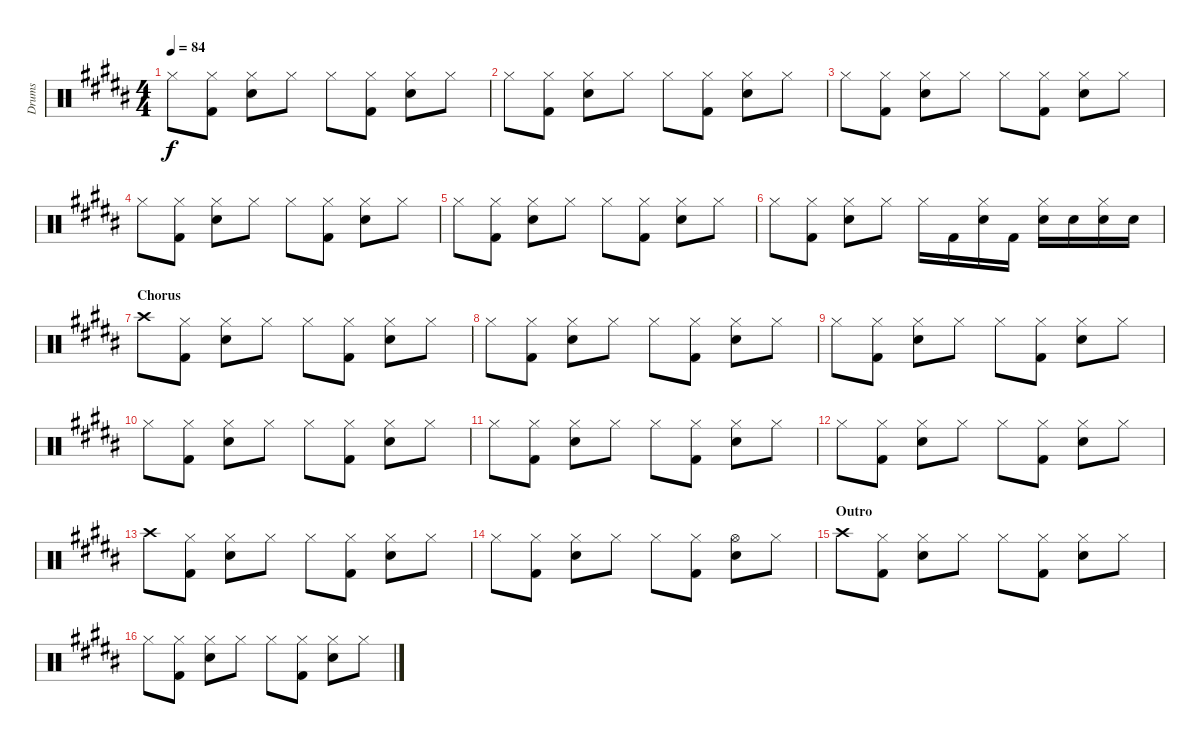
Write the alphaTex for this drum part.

\track ("Drums" "Drums") {instrument percussion}
\staff {score}
\articulation defaults
\ts (4 4)
\tempo 84
\clef neutral
\ks b "Hi-Hat (closed)".8{dy f}
("Hi-Hat (closed)" "Kick (hit) 2").8 ("Hi-Hat (closed)" "Snare (hit) 2").8 "Hi-Hat (closed)".8 "Hi-Hat (closed)".8 ("Hi-Hat (closed)" "Kick (hit) 2").8 ("Hi-Hat (closed)" "Snare (hit) 2").8 "Hi-Hat (closed)".8 |
"Hi-Hat (closed)".8 ("Hi-Hat (closed)" "Kick (hit) 2").8 ("Hi-Hat (closed)" "Snare (hit) 2").8 "Hi-Hat (closed)".8 "Hi-Hat (closed)".8 ("Hi-Hat (closed)" "Kick (hit) 2").8 ("Hi-Hat (closed)" "Snare (hit) 2").8 "Hi-Hat (closed)".8 |
"Hi-Hat (closed)".8 ("Hi-Hat (closed)" "Kick (hit) 2").8 ("Hi-Hat (closed)" "Snare (hit) 2").8 "Hi-Hat (closed)".8 "Hi-Hat (closed)".8 ("Hi-Hat (closed)" "Kick (hit) 2").8 ("Hi-Hat (closed)" "Snare (hit) 2").8 "Hi-Hat (closed)".8 |
"Hi-Hat (closed)".8 ("Hi-Hat (closed)" "Kick (hit) 2").8 ("Hi-Hat (closed)" "Snare (hit) 2").8 "Hi-Hat (closed)".8 "Hi-Hat (closed)".8 ("Hi-Hat (closed)" "Kick (hit) 2").8 ("Hi-Hat (closed)" "Snare (hit) 2").8 "Hi-Hat (closed)".8 |
"Hi-Hat (closed)".8 ("Hi-Hat (closed)" "Kick (hit) 2").8 ("Hi-Hat (closed)" "Snare (hit) 2").8 "Hi-Hat (closed)".8 "Hi-Hat (closed)".8 ("Hi-Hat (closed)" "Kick (hit) 2").8 ("Hi-Hat (closed)" "Snare (hit) 2").8 "Hi-Hat (closed)".8 |
"Hi-Hat (closed)".8 ("Hi-Hat (closed)" "Kick (hit) 2").8 ("Hi-Hat (closed)" "Snare (hit) 2").8 "Hi-Hat (closed)".8 "Hi-Hat (closed)".16 "Kick (hit) 2".16 ("Hi-Hat (closed)" "Snare (hit) 2").16 "Kick (hit) 2".16 ("Snare (hit) 2" "Hi-Hat (closed)").16 "Snare (hit) 2".16 ("Snare (hit) 2" "Hi-Hat (closed)").16 "Snare (hit) 2".16 |
\section ("" "Chorus")
"Crash high (hit)".8 ("Hi-Hat (closed)" "Kick (hit) 2").8 ("Hi-Hat (closed)" "Snare (hit) 2").8 "Hi-Hat (closed)".8 "Hi-Hat (closed)".8 ("Hi-Hat (closed)" "Kick (hit) 2").8 ("Hi-Hat (closed)" "Snare (hit) 2").8 "Hi-Hat (closed)".8 |
"Hi-Hat (closed)".8 ("Hi-Hat (closed)" "Kick (hit) 2").8 ("Hi-Hat (closed)" "Snare (hit) 2").8 "Hi-Hat (closed)".8 "Hi-Hat (closed)".8 ("Hi-Hat (closed)" "Kick (hit) 2").8 ("Hi-Hat (closed)" "Snare (hit) 2").8 "Hi-Hat (closed)".8 |
"Hi-Hat (closed)".8 ("Hi-Hat (closed)" "Kick (hit) 2").8 ("Hi-Hat (closed)" "Snare (hit) 2").8 "Hi-Hat (closed)".8 "Hi-Hat (closed)".8 ("Hi-Hat (closed)" "Kick (hit) 2").8 ("Hi-Hat (closed)" "Snare (hit) 2").8 "Hi-Hat (closed)".8 |
"Hi-Hat (closed)".8 ("Hi-Hat (closed)" "Kick (hit) 2").8 ("Hi-Hat (closed)" "Snare (hit) 2").8 "Hi-Hat (closed)".8 "Hi-Hat (closed)".8 ("Hi-Hat (closed)" "Kick (hit) 2").8 ("Hi-Hat (closed)" "Snare (hit) 2").8 "Hi-Hat (closed)".8 |
"Hi-Hat (closed)".8 ("Hi-Hat (closed)" "Kick (hit) 2").8 ("Hi-Hat (closed)" "Snare (hit) 2").8 "Hi-Hat (closed)".8 "Hi-Hat (closed)".8 ("Hi-Hat (closed)" "Kick (hit) 2").8 ("Hi-Hat (closed)" "Snare (hit) 2").8 "Hi-Hat (closed)".8 |
"Hi-Hat (closed)".8 ("Hi-Hat (closed)" "Kick (hit) 2").8 ("Hi-Hat (closed)" "Snare (hit) 2").8 "Hi-Hat (closed)".8 "Hi-Hat (closed)".8 ("Hi-Hat (closed)" "Kick (hit) 2").8 ("Hi-Hat (closed)" "Snare (hit) 2").8 "Hi-Hat (closed)".8 |
"Crash high (hit)".8 ("Hi-Hat (closed)" "Kick (hit) 2").8 ("Hi-Hat (closed)" "Snare (hit) 2").8 "Hi-Hat (closed)".8 "Hi-Hat (closed)".8 ("Hi-Hat (closed)" "Kick (hit) 2").8 ("Hi-Hat (closed)" "Snare (hit) 2").8 "Hi-Hat (closed)".8 |
"Hi-Hat (closed)".8 ("Hi-Hat (closed)" "Kick (hit) 2").8 ("Hi-Hat (closed)" "Snare (hit) 2").8 "Hi-Hat (closed)".8 "Hi-Hat (closed)".8 ("Hi-Hat (closed)" "Kick (hit) 2").8 ("Hi-Hat (open)" "Snare (hit) 2").8 "Hi-Hat (closed)".8 |
\section ("" "Outro")
"Crash high (hit)".8 ("Hi-Hat (closed)" "Kick (hit) 2").8 ("Hi-Hat (closed)" "Snare (hit) 2").8 "Hi-Hat (closed)".8 "Hi-Hat (closed)".8 ("Hi-Hat (closed)" "Kick (hit) 2").8 ("Hi-Hat (closed)" "Snare (hit) 2").8 "Hi-Hat (closed)".8 |
"Hi-Hat (closed)".8 ("Hi-Hat (closed)" "Kick (hit) 2").8 ("Hi-Hat (closed)" "Snare (hit) 2").8 "Hi-Hat (closed)".8 "Hi-Hat (closed)".8 ("Hi-Hat (closed)" "Kick (hit) 2").8 ("Hi-Hat (closed)" "Snare (hit) 2").8 "Hi-Hat (closed)".8
